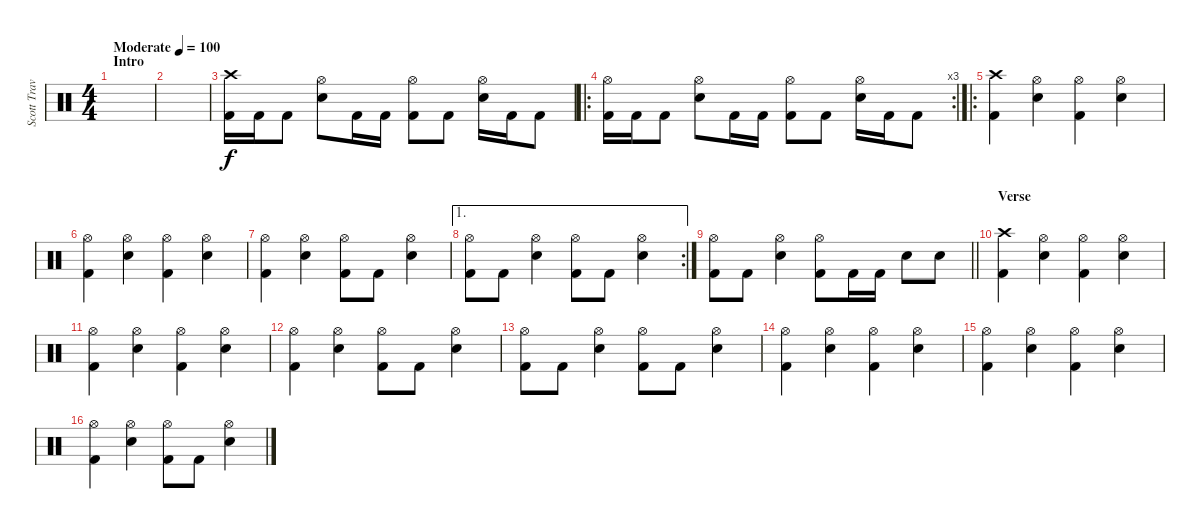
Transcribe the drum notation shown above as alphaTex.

\track ("Scott Travis" "Scott Trav") {instrument percussion}
\staff {score}
\articulation defaults
\ts (4 4)
\section ("" "Intro")
\tempo (100 "Moderate")
\clef neutral
\ks c
|
|
("Crash high (hit)" "Kick (hit) 2").16 "Kick (hit) 2".16 "Kick (hit) 2".8 ("Hi-Hat (open)" "Snare (hit) 2").8 "Kick (hit) 2".16 "Kick (hit) 2".16 ("Hi-Hat (open)" "Kick (hit) 2").8 "Kick (hit) 2".8 ("Hi-Hat (open)" "Snare (hit) 2").16 "Kick (hit) 2".16 "Kick (hit) 2".8 |
\ro
\rc 3
("Hi-Hat (open)" "Kick (hit) 2").16 "Kick (hit) 2".16 "Kick (hit) 2".8 ("Hi-Hat (open)" "Snare (hit) 2").8 "Kick (hit) 2".16 "Kick (hit) 2".16 ("Hi-Hat (open)" "Kick (hit) 2").8 "Kick (hit) 2".8 ("Hi-Hat (open)" "Snare (hit) 2").16 "Kick (hit) 2".16 "Kick (hit) 2".8 |
\ro
("Crash high (hit)" "Kick (hit) 2").4 ("Hi-Hat (open)" "Snare (hit) 2").4 ("Hi-Hat (open)" "Kick (hit) 2").4 ("Hi-Hat (open)" "Snare (hit) 2").4 |
("Hi-Hat (open)" "Kick (hit) 2").4 ("Hi-Hat (open)" "Snare (hit) 2").4 ("Hi-Hat (open)" "Kick (hit) 2").4 ("Hi-Hat (open)" "Snare (hit) 2").4 |
("Hi-Hat (open)" "Kick (hit) 2").4 ("Hi-Hat (open)" "Snare (hit) 2").4 ("Hi-Hat (open)" "Kick (hit) 2").8 "Kick (hit) 2".8 ("Hi-Hat (open)" "Snare (hit) 2").4 |
\ae 1
\rc 2
("Hi-Hat (open)" "Kick (hit) 2").8 "Kick (hit) 2".8 ("Hi-Hat (open)" "Snare (hit) 2").4 ("Hi-Hat (open)" "Kick (hit) 2").8 "Kick (hit) 2".8 ("Hi-Hat (open)" "Snare (hit) 2").4 |
\barLineRight lightlight
("Hi-Hat (open)" "Kick (hit) 2").8 "Kick (hit) 2".8 ("Hi-Hat (open)" "Snare (hit) 2").4 ("Hi-Hat (open)" "Kick (hit) 2").8 "Kick (hit) 2".16 "Kick (hit) 2".16 "Snare (hit) 2".8 "Snare (hit) 2".8 |
\section ("" "Verse")
("Crash high (hit)" "Kick (hit) 2").4 ("Hi-Hat (open)" "Snare (hit) 2").4 ("Hi-Hat (open)" "Kick (hit) 2").4 ("Hi-Hat (open)" "Snare (hit) 2").4 |
("Hi-Hat (open)" "Kick (hit) 2").4 ("Hi-Hat (open)" "Snare (hit) 2").4 ("Hi-Hat (open)" "Kick (hit) 2").4 ("Hi-Hat (open)" "Snare (hit) 2").4 |
("Hi-Hat (open)" "Kick (hit) 2").4 ("Hi-Hat (open)" "Snare (hit) 2").4 ("Hi-Hat (open)" "Kick (hit) 2").8 "Kick (hit) 2".8 ("Hi-Hat (open)" "Snare (hit) 2").4 |
("Hi-Hat (open)" "Kick (hit) 2").8 "Kick (hit) 2".8 ("Hi-Hat (open)" "Snare (hit) 2").4 ("Hi-Hat (open)" "Kick (hit) 2").8 "Kick (hit) 2".8 ("Hi-Hat (open)" "Snare (hit) 2").4 |
("Hi-Hat (open)" "Kick (hit) 2").4 ("Hi-Hat (open)" "Snare (hit) 2").4 ("Hi-Hat (open)" "Kick (hit) 2").4 ("Hi-Hat (open)" "Snare (hit) 2").4 |
("Hi-Hat (open)" "Kick (hit) 2").4 ("Hi-Hat (open)" "Snare (hit) 2").4 ("Hi-Hat (open)" "Kick (hit) 2").4 ("Hi-Hat (open)" "Snare (hit) 2").4 |
("Hi-Hat (open)" "Kick (hit) 2").4 ("Hi-Hat (open)" "Snare (hit) 2").4 ("Hi-Hat (open)" "Kick (hit) 2").8 "Kick (hit) 2".8 ("Hi-Hat (open)" "Snare (hit) 2").4
